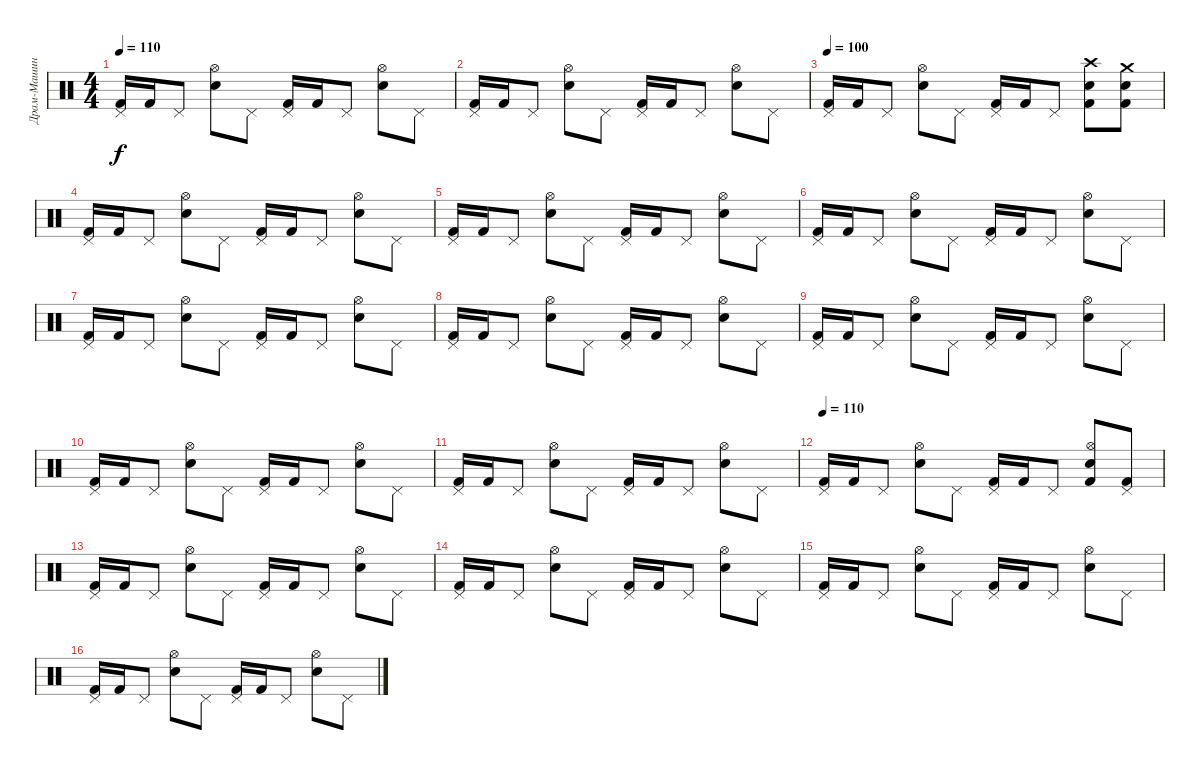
\track ("Драм-Машина" "Драм-Машин") {instrument percussion}
\staff {score}
\articulation defaults
\ts (4 4)
\tempo 110
\clef neutral
\ks c
("Pedal Hi-Hat (hit)" "Kick (hit) 2").16{dy f} "Kick (hit) 2".16 "Pedal Hi-Hat (hit)".8 ("Hi-Hat (open)" "Electric Snare (hit)").8 "Pedal Hi-Hat (hit)".8 ("Pedal Hi-Hat (hit)" "Kick (hit) 2").16 "Kick (hit) 2".16 "Pedal Hi-Hat (hit)".8 ("Hi-Hat (open)" "Electric Snare (hit)").8 "Pedal Hi-Hat (hit)".8 |
("Pedal Hi-Hat (hit)" "Kick (hit) 2").16 "Kick (hit) 2".16 "Pedal Hi-Hat (hit)".8 ("Hi-Hat (open)" "Electric Snare (hit)").8 "Pedal Hi-Hat (hit)".8 ("Pedal Hi-Hat (hit)" "Kick (hit) 2").16 "Kick (hit) 2".16 "Pedal Hi-Hat (hit)".8 ("Hi-Hat (open)" "Electric Snare (hit)").8 "Pedal Hi-Hat (hit)".8 |
\tempo 100
("Pedal Hi-Hat (hit)" "Kick (hit) 2").16 "Kick (hit) 2".16 "Pedal Hi-Hat (hit)".8 ("Hi-Hat (open)" "Electric Snare (hit)").8 "Pedal Hi-Hat (hit)".8 ("Pedal Hi-Hat (hit)" "Kick (hit) 2").16 "Kick (hit) 2".16 "Pedal Hi-Hat (hit)".8 ("Kick (hit) 2" "Crash high (hit)" "Electric Snare (hit)").8 ("Kick (hit) 2" "Electric Snare (hit)" "Crash medium (hit)").8 |
("Pedal Hi-Hat (hit)" "Kick (hit) 2").16 "Kick (hit) 2".16 "Pedal Hi-Hat (hit)".8 ("Hi-Hat (open)" "Electric Snare (hit)").8 "Pedal Hi-Hat (hit)".8 ("Pedal Hi-Hat (hit)" "Kick (hit) 2").16 "Kick (hit) 2".16 "Pedal Hi-Hat (hit)".8 ("Hi-Hat (open)" "Electric Snare (hit)").8 "Pedal Hi-Hat (hit)".8 |
("Pedal Hi-Hat (hit)" "Kick (hit) 2").16 "Kick (hit) 2".16 "Pedal Hi-Hat (hit)".8 ("Hi-Hat (open)" "Electric Snare (hit)").8 "Pedal Hi-Hat (hit)".8 ("Pedal Hi-Hat (hit)" "Kick (hit) 2").16 "Kick (hit) 2".16 "Pedal Hi-Hat (hit)".8 ("Hi-Hat (open)" "Electric Snare (hit)").8 "Pedal Hi-Hat (hit)".8 |
("Pedal Hi-Hat (hit)" "Kick (hit) 2").16 "Kick (hit) 2".16 "Pedal Hi-Hat (hit)".8 ("Hi-Hat (open)" "Electric Snare (hit)").8 "Pedal Hi-Hat (hit)".8 ("Pedal Hi-Hat (hit)" "Kick (hit) 2").16 "Kick (hit) 2".16 "Pedal Hi-Hat (hit)".8 ("Hi-Hat (open)" "Electric Snare (hit)").8 "Pedal Hi-Hat (hit)".8 |
("Pedal Hi-Hat (hit)" "Kick (hit) 2").16 "Kick (hit) 2".16 "Pedal Hi-Hat (hit)".8 ("Hi-Hat (open)" "Electric Snare (hit)").8 "Pedal Hi-Hat (hit)".8 ("Pedal Hi-Hat (hit)" "Kick (hit) 2").16 "Kick (hit) 2".16 "Pedal Hi-Hat (hit)".8 ("Hi-Hat (open)" "Electric Snare (hit)").8 "Pedal Hi-Hat (hit)".8 |
("Pedal Hi-Hat (hit)" "Kick (hit) 2").16 "Kick (hit) 2".16 "Pedal Hi-Hat (hit)".8 ("Hi-Hat (open)" "Electric Snare (hit)").8 "Pedal Hi-Hat (hit)".8 ("Pedal Hi-Hat (hit)" "Kick (hit) 2").16 "Kick (hit) 2".16 "Pedal Hi-Hat (hit)".8 ("Hi-Hat (open)" "Electric Snare (hit)").8 "Pedal Hi-Hat (hit)".8 |
("Pedal Hi-Hat (hit)" "Kick (hit) 2").16 "Kick (hit) 2".16 "Pedal Hi-Hat (hit)".8 ("Hi-Hat (open)" "Electric Snare (hit)").8 "Pedal Hi-Hat (hit)".8 ("Pedal Hi-Hat (hit)" "Kick (hit) 2").16 "Kick (hit) 2".16 "Pedal Hi-Hat (hit)".8 ("Hi-Hat (open)" "Electric Snare (hit)").8 "Pedal Hi-Hat (hit)".8 |
("Pedal Hi-Hat (hit)" "Kick (hit) 2").16 "Kick (hit) 2".16 "Pedal Hi-Hat (hit)".8 ("Hi-Hat (open)" "Electric Snare (hit)").8 "Pedal Hi-Hat (hit)".8 ("Pedal Hi-Hat (hit)" "Kick (hit) 2").16 "Kick (hit) 2".16 "Pedal Hi-Hat (hit)".8 ("Hi-Hat (open)" "Electric Snare (hit)").8 "Pedal Hi-Hat (hit)".8 |
("Pedal Hi-Hat (hit)" "Kick (hit) 2").16 "Kick (hit) 2".16 "Pedal Hi-Hat (hit)".8 ("Hi-Hat (open)" "Electric Snare (hit)").8 "Pedal Hi-Hat (hit)".8 ("Pedal Hi-Hat (hit)" "Kick (hit) 2").16 "Kick (hit) 2".16 "Pedal Hi-Hat (hit)".8 ("Hi-Hat (open)" "Electric Snare (hit)").8 "Pedal Hi-Hat (hit)".8 |
\tempo 110
("Pedal Hi-Hat (hit)" "Kick (hit) 2").16 "Kick (hit) 2".16 "Pedal Hi-Hat (hit)".8 ("Hi-Hat (open)" "Electric Snare (hit)").8 "Pedal Hi-Hat (hit)".8 ("Pedal Hi-Hat (hit)" "Kick (hit) 2").16 "Kick (hit) 2".16 "Pedal Hi-Hat (hit)".8 ("Hi-Hat (open)" "Electric Snare (hit)" "Kick (hit) 2").8 ("Pedal Hi-Hat (hit)" "Kick (hit) 2").8 |
("Pedal Hi-Hat (hit)" "Kick (hit) 2").16 "Kick (hit) 2".16 "Pedal Hi-Hat (hit)".8 ("Hi-Hat (open)" "Electric Snare (hit)").8 "Pedal Hi-Hat (hit)".8 ("Pedal Hi-Hat (hit)" "Kick (hit) 2").16 "Kick (hit) 2".16 "Pedal Hi-Hat (hit)".8 ("Hi-Hat (open)" "Electric Snare (hit)").8 "Pedal Hi-Hat (hit)".8 |
("Pedal Hi-Hat (hit)" "Kick (hit) 2").16 "Kick (hit) 2".16 "Pedal Hi-Hat (hit)".8 ("Hi-Hat (open)" "Electric Snare (hit)").8 "Pedal Hi-Hat (hit)".8 ("Pedal Hi-Hat (hit)" "Kick (hit) 2").16 "Kick (hit) 2".16 "Pedal Hi-Hat (hit)".8 ("Hi-Hat (open)" "Electric Snare (hit)").8 "Pedal Hi-Hat (hit)".8 |
("Pedal Hi-Hat (hit)" "Kick (hit) 2").16 "Kick (hit) 2".16 "Pedal Hi-Hat (hit)".8 ("Hi-Hat (open)" "Electric Snare (hit)").8 "Pedal Hi-Hat (hit)".8 ("Pedal Hi-Hat (hit)" "Kick (hit) 2").16 "Kick (hit) 2".16 "Pedal Hi-Hat (hit)".8 ("Hi-Hat (open)" "Electric Snare (hit)").8 "Pedal Hi-Hat (hit)".8 |
("Pedal Hi-Hat (hit)" "Kick (hit) 2").16 "Kick (hit) 2".16 "Pedal Hi-Hat (hit)".8 ("Hi-Hat (open)" "Electric Snare (hit)").8 "Pedal Hi-Hat (hit)".8 ("Pedal Hi-Hat (hit)" "Kick (hit) 2").16 "Kick (hit) 2".16 "Pedal Hi-Hat (hit)".8 ("Hi-Hat (open)" "Electric Snare (hit)").8 "Pedal Hi-Hat (hit)".8
